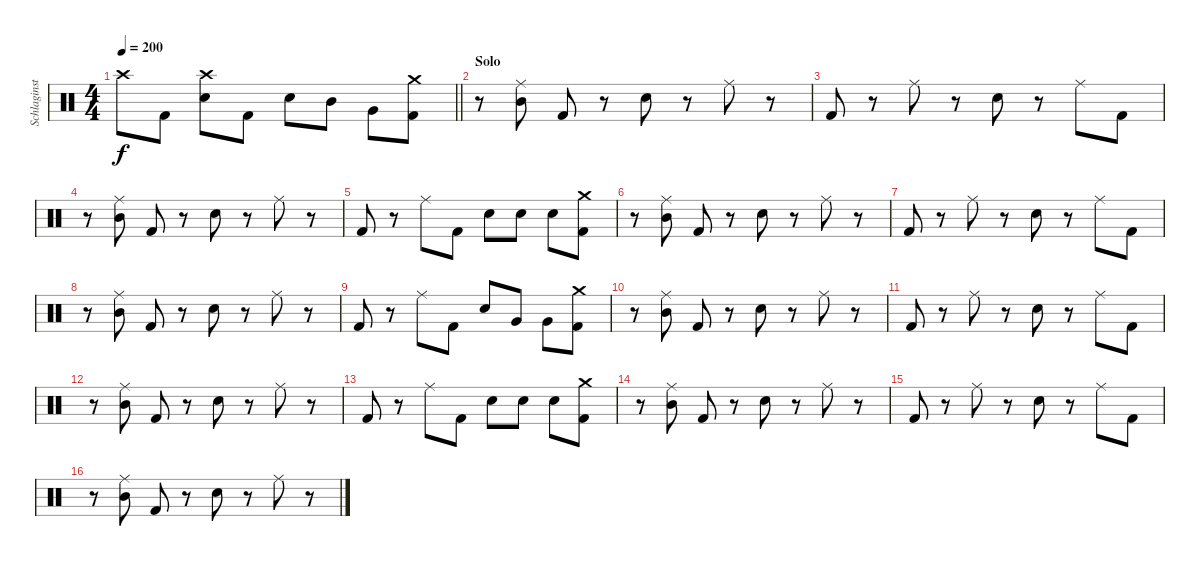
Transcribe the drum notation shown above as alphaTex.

\track ("Schlaginstrumente - Auswahl" "Schlaginst") {instrument percussion}
\staff {score}
\articulation defaults
\ts (4 4)
\tempo 200
\clef neutral
\barLineRight lightlight
\ks c "Crash high (hit)".8{dy f} "Kick (hit) 2".8
("Crash high (hit)" "Electric Snare (hit)").8 "Kick (hit) 2".8 "Electric Snare (hit)".8 "Mid Tom (hit)".8 "Very Low Tom (hit)".8 ("Crash medium (hit)" "Kick (hit) 2").8 |
\section ("" "Solo")
r.8 ("Ride (middle)" "Mid Tom (hit)").8 "Kick (hit) 2".8 r.8 "Electric Snare (hit)".8 r.8 "Ride (middle)".8 r.8 |
"Kick (hit) 2".8 r.8 "Ride (middle)".8 r.8 "Electric Snare (hit)".8 r.8 "Ride (middle)".8 "Kick (hit) 2".8 |
r.8 ("Ride (middle)" "Mid Tom (hit)").8 "Kick (hit) 2".8 r.8 "Electric Snare (hit)".8 r.8 "Ride (middle)".8 r.8 |
"Kick (hit) 2".8 r.8 "Ride (middle)".8 "Kick (hit) 2".8 "Electric Snare (hit)".8 "Electric Snare (hit)".8 "Electric Snare (hit)".8 ("Crash medium (hit)" "Kick (hit) 2").8 |
r.8 ("Ride (middle)" "Mid Tom (hit)").8 "Kick (hit) 2".8 r.8 "Electric Snare (hit)".8 r.8 "Ride (middle)".8 r.8 |
"Kick (hit) 2".8 r.8 "Ride (middle)".8 r.8 "Electric Snare (hit)".8 r.8 "Ride (middle)".8 "Kick (hit) 2".8 |
r.8 ("Ride (middle)" "Mid Tom (hit)").8 "Kick (hit) 2".8 r.8 "Electric Snare (hit)".8 r.8 "Ride (middle)".8 r.8 |
"Kick (hit) 2".8 r.8 "Ride (middle)".8 "Kick (hit) 2".8 "Electric Snare (hit)".8 "Very Low Tom (hit)".8 "Very Low Tom (hit)".8 ("Crash medium (hit)" "Kick (hit) 2").8 |
r.8 ("Ride (middle)" "Mid Tom (hit)").8 "Kick (hit) 2".8 r.8 "Electric Snare (hit)".8 r.8 "Ride (middle)".8 r.8 |
"Kick (hit) 2".8 r.8 "Ride (middle)".8 r.8 "Electric Snare (hit)".8 r.8 "Ride (middle)".8 "Kick (hit) 2".8 |
r.8 ("Ride (middle)" "Mid Tom (hit)").8 "Kick (hit) 2".8 r.8 "Electric Snare (hit)".8 r.8 "Ride (middle)".8 r.8 |
"Kick (hit) 2".8 r.8 "Ride (middle)".8 "Kick (hit) 2".8 "Electric Snare (hit)".8 "Electric Snare (hit)".8 "Electric Snare (hit)".8 ("Crash medium (hit)" "Kick (hit) 2").8 |
r.8 ("Ride (middle)" "Mid Tom (hit)").8 "Kick (hit) 2".8 r.8 "Electric Snare (hit)".8 r.8 "Ride (middle)".8 r.8 |
"Kick (hit) 2".8 r.8 "Ride (middle)".8 r.8 "Electric Snare (hit)".8 r.8 "Ride (middle)".8 "Kick (hit) 2".8 |
r.8 ("Ride (middle)" "Mid Tom (hit)").8 "Kick (hit) 2".8 r.8 "Electric Snare (hit)".8 r.8 "Ride (middle)".8 r.8
